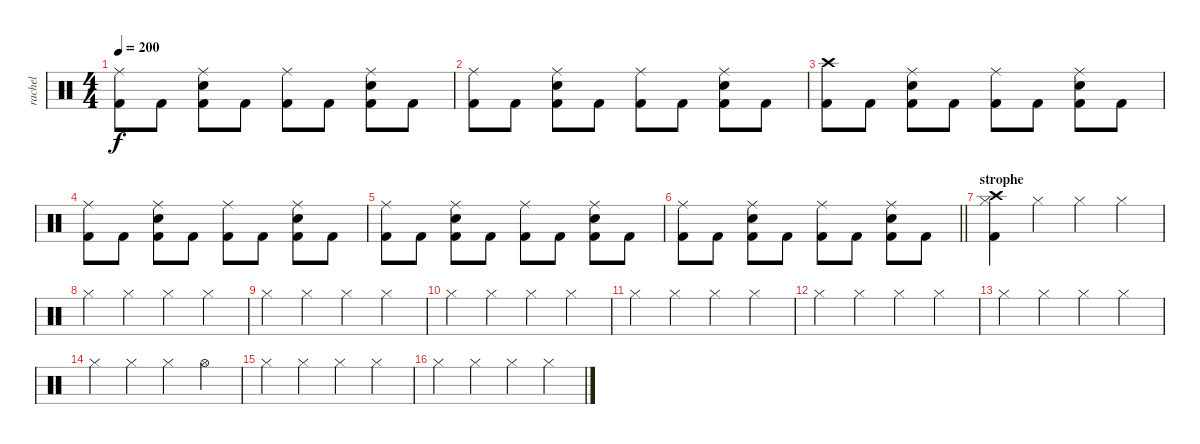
\track ("rachel" "rachel") {instrument percussion}
\staff {score}
\articulation defaults
\ts (4 4)
\tempo 200
\clef neutral
\ks c
("Ride (middle)" "Kick (hit) 2").8{dy f} "Kick (hit) 2".8 ("Ride (middle)" "Electric Snare (hit)" "Kick (hit) 2").8 "Kick (hit) 2".8 ("Ride (middle)" "Kick (hit) 2").8 "Kick (hit) 2".8 ("Ride (middle)" "Electric Snare (hit)" "Kick (hit) 2").8 "Kick (hit) 2".8 |
("Ride (middle)" "Kick (hit) 2").8 "Kick (hit) 2".8 ("Ride (middle)" "Electric Snare (hit)" "Kick (hit) 2").8 "Kick (hit) 2".8 ("Ride (middle)" "Kick (hit) 2").8 "Kick (hit) 2".8 ("Ride (middle)" "Electric Snare (hit)" "Kick (hit) 2").8 "Kick (hit) 2".8 |
("Crash high (hit)" "Kick (hit) 2").8 "Kick (hit) 2".8 ("Ride (middle)" "Electric Snare (hit)" "Kick (hit) 2").8 "Kick (hit) 2".8 ("Ride (middle)" "Kick (hit) 2").8 "Kick (hit) 2".8 ("Ride (middle)" "Electric Snare (hit)" "Kick (hit) 2").8 "Kick (hit) 2".8 |
("Ride (middle)" "Kick (hit) 2").8 "Kick (hit) 2".8 ("Ride (middle)" "Electric Snare (hit)" "Kick (hit) 2").8 "Kick (hit) 2".8 ("Ride (middle)" "Kick (hit) 2").8 "Kick (hit) 2".8 ("Ride (middle)" "Electric Snare (hit)" "Kick (hit) 2").8 "Kick (hit) 2".8 |
("Ride (middle)" "Kick (hit) 2").8 "Kick (hit) 2".8 ("Ride (middle)" "Electric Snare (hit)" "Kick (hit) 2").8 "Kick (hit) 2".8 ("Ride (middle)" "Kick (hit) 2").8 "Kick (hit) 2".8 ("Ride (middle)" "Electric Snare (hit)" "Kick (hit) 2").8 "Kick (hit) 2".8 |
\barLineRight lightlight
("Ride (middle)" "Kick (hit) 2").8 "Kick (hit) 2".8 ("Ride (middle)" "Electric Snare (hit)" "Kick (hit) 2").8 "Kick (hit) 2".8 ("Ride (middle)" "Kick (hit) 2").8 "Kick (hit) 2".8 ("Ride (middle)" "Electric Snare (hit)" "Kick (hit) 2").8 "Kick (hit) 2".8 |
\section ("" "strophe")
("Crash high (hit)" "Hi-Hat (closed)" "Kick (hit) 2").4 "Hi-Hat (closed)".4 "Hi-Hat (closed)".4 "Hi-Hat (closed)".4 |
"Hi-Hat (closed)".4 "Hi-Hat (closed)".4 "Hi-Hat (closed)".4 "Hi-Hat (closed)".4 |
"Hi-Hat (closed)".4 "Hi-Hat (closed)".4 "Hi-Hat (closed)".4 "Hi-Hat (closed)".4 |
"Hi-Hat (closed)".4 "Hi-Hat (closed)".4 "Hi-Hat (closed)".4 "Hi-Hat (closed)".4 |
"Hi-Hat (closed)".4 "Hi-Hat (closed)".4 "Hi-Hat (closed)".4 "Hi-Hat (closed)".4 |
"Hi-Hat (closed)".4 "Hi-Hat (closed)".4 "Hi-Hat (closed)".4 "Hi-Hat (closed)".4 |
"Hi-Hat (closed)".4 "Hi-Hat (closed)".4 "Hi-Hat (closed)".4 "Hi-Hat (closed)".4 |
"Hi-Hat (closed)".4 "Hi-Hat (closed)".4 "Hi-Hat (closed)".4 "Hi-Hat (open)".4 |
"Hi-Hat (closed)".4 "Hi-Hat (closed)".4 "Hi-Hat (closed)".4 "Hi-Hat (closed)".4 |
"Hi-Hat (closed)".4 "Hi-Hat (closed)".4 "Hi-Hat (closed)".4 "Hi-Hat (closed)".4
